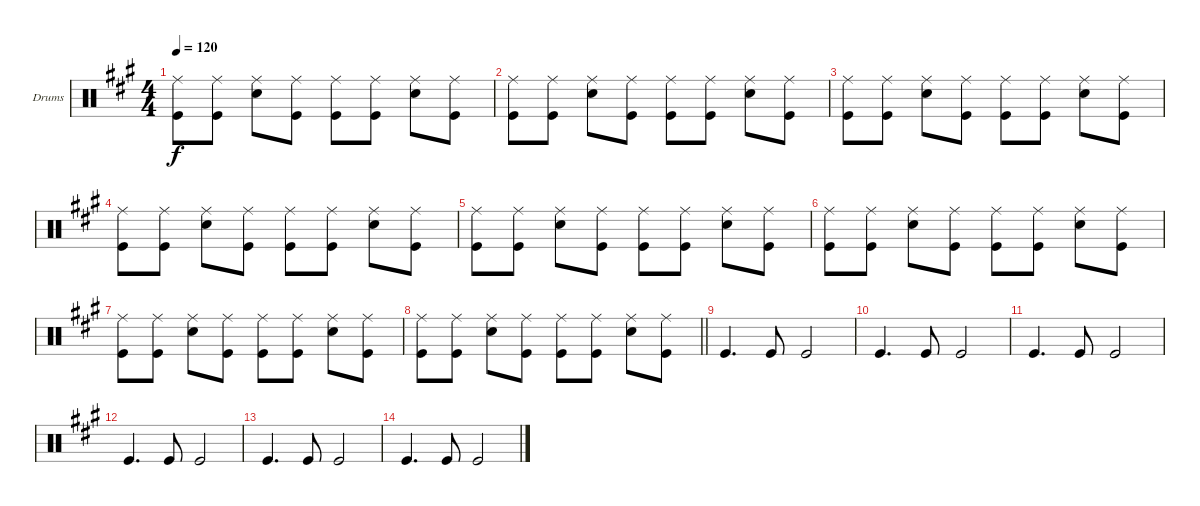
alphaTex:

\bracketExtendMode groupsimilarinstruments
\firstSystemTrackNameOrientation horizontal
\otherSystemsTrackNameOrientation horizontal
\track ("Drums Ringo" "Drums") {instrument percussion}
\staff {score}
\articulation defaults
\ts (4 4)
\tempo 120
\clef neutral
\ks a
("Ride (middle)" "Kick (hit)").8{dy f} ("Ride (middle)" "Kick (hit)").8 ("Ride (middle)" "Snare (hit) 2").8 ("Ride (middle)" "Kick (hit)").8 ("Ride (middle)" "Kick (hit)").8 ("Ride (middle)" "Kick (hit)").8 ("Ride (middle)" "Snare (hit) 2").8 ("Ride (middle)" "Kick (hit)").8 |
("Ride (middle)" "Kick (hit)").8 ("Ride (middle)" "Kick (hit)").8 ("Ride (middle)" "Snare (hit) 2").8 ("Ride (middle)" "Kick (hit)").8 ("Ride (middle)" "Kick (hit)").8 ("Ride (middle)" "Kick (hit)").8 ("Ride (middle)" "Snare (hit) 2").8 ("Ride (middle)" "Kick (hit)").8 |
("Ride (middle)" "Kick (hit)").8 ("Ride (middle)" "Kick (hit)").8 ("Ride (middle)" "Snare (hit) 2").8 ("Ride (middle)" "Kick (hit)").8 ("Ride (middle)" "Kick (hit)").8 ("Ride (middle)" "Kick (hit)").8 ("Ride (middle)" "Snare (hit) 2").8 ("Ride (middle)" "Kick (hit)").8 |
("Ride (middle)" "Kick (hit)").8 ("Ride (middle)" "Kick (hit)").8 ("Ride (middle)" "Snare (hit) 2").8 ("Ride (middle)" "Kick (hit)").8 ("Ride (middle)" "Kick (hit)").8 ("Ride (middle)" "Kick (hit)").8 ("Ride (middle)" "Snare (hit) 2").8 ("Ride (middle)" "Kick (hit)").8 |
("Ride (middle)" "Kick (hit)").8 ("Ride (middle)" "Kick (hit)").8 ("Ride (middle)" "Snare (hit) 2").8 ("Ride (middle)" "Kick (hit)").8 ("Ride (middle)" "Kick (hit)").8 ("Ride (middle)" "Kick (hit)").8 ("Ride (middle)" "Snare (hit) 2").8 ("Ride (middle)" "Kick (hit)").8 |
("Ride (middle)" "Kick (hit)").8 ("Ride (middle)" "Kick (hit)").8 ("Ride (middle)" "Snare (hit) 2").8 ("Ride (middle)" "Kick (hit)").8 ("Ride (middle)" "Kick (hit)").8 ("Ride (middle)" "Kick (hit)").8 ("Ride (middle)" "Snare (hit) 2").8 ("Ride (middle)" "Kick (hit)").8 |
("Ride (middle)" "Kick (hit)").8 ("Ride (middle)" "Kick (hit)").8 ("Ride (middle)" "Snare (hit) 2").8 ("Ride (middle)" "Kick (hit)").8 ("Ride (middle)" "Kick (hit)").8 ("Ride (middle)" "Kick (hit)").8 ("Ride (middle)" "Snare (hit) 2").8 ("Ride (middle)" "Kick (hit)").8 |
\barLineRight lightlight
("Ride (middle)" "Kick (hit)").8 ("Ride (middle)" "Kick (hit)").8 ("Ride (middle)" "Snare (hit) 2").8 ("Ride (middle)" "Kick (hit)").8 ("Ride (middle)" "Kick (hit)").8 ("Ride (middle)" "Kick (hit)").8 ("Ride (middle)" "Snare (hit) 2").8 ("Ride (middle)" "Kick (hit)").8 |
"Kick (hit)".4{d} "Kick (hit)".8 "Kick (hit)".2 |
"Kick (hit)".4{d} "Kick (hit)".8 "Kick (hit)".2 |
"Kick (hit)".4{d} "Kick (hit)".8 "Kick (hit)".2 |
"Kick (hit)".4{d} "Kick (hit)".8 "Kick (hit)".2 |
"Kick (hit)".4{d} "Kick (hit)".8 "Kick (hit)".2 |
"Kick (hit)".4{d} "Kick (hit)".8 "Kick (hit)".2
